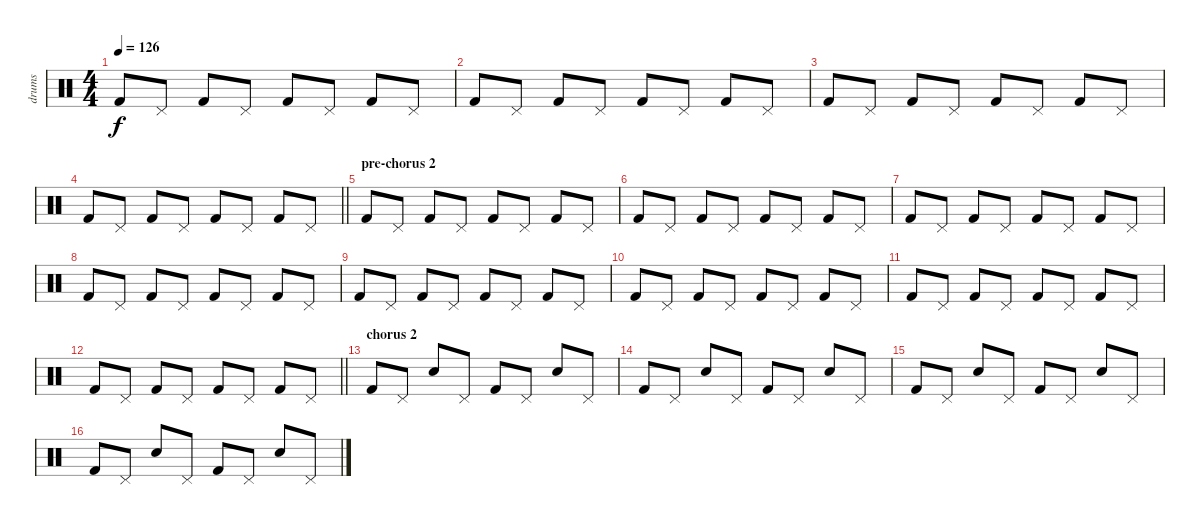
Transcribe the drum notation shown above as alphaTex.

\track ("drums" "drums") {instrument percussion}
\staff {score}
\articulation defaults
\ts (4 4)
\tempo 126
\clef neutral
\ks c "Kick (hit) 2".8{dy f} "Pedal Hi-Hat (hit)".8 "Kick (hit) 2".8 "Pedal Hi-Hat (hit)".8 "Kick (hit) 2".8 "Pedal Hi-Hat (hit)".8 "Kick (hit) 2".8 "Pedal Hi-Hat (hit)".8
|
"Kick (hit) 2".8 "Pedal Hi-Hat (hit)".8 "Kick (hit) 2".8 "Pedal Hi-Hat (hit)".8 "Kick (hit) 2".8 "Pedal Hi-Hat (hit)".8 "Kick (hit) 2".8 "Pedal Hi-Hat (hit)".8 |
"Kick (hit) 2".8 "Pedal Hi-Hat (hit)".8 "Kick (hit) 2".8 "Pedal Hi-Hat (hit)".8 "Kick (hit) 2".8 "Pedal Hi-Hat (hit)".8 "Kick (hit) 2".8 "Pedal Hi-Hat (hit)".8 |
\barLineRight lightlight "Kick (hit) 2".8 "Pedal Hi-Hat (hit)".8 "Kick (hit) 2".8 "Pedal Hi-Hat (hit)".8 "Kick (hit) 2".8 "Pedal Hi-Hat (hit)".8 "Kick (hit) 2".8 "Pedal Hi-Hat (hit)".8
|
\section ("" "pre-chorus 2")
"Kick (hit) 2".8 "Pedal Hi-Hat (hit)".8 "Kick (hit) 2".8 "Pedal Hi-Hat (hit)".8 "Kick (hit) 2".8 "Pedal Hi-Hat (hit)".8 "Kick (hit) 2".8 "Pedal Hi-Hat (hit)".8 |
"Kick (hit) 2".8 "Pedal Hi-Hat (hit)".8 "Kick (hit) 2".8 "Pedal Hi-Hat (hit)".8 "Kick (hit) 2".8 "Pedal Hi-Hat (hit)".8 "Kick (hit) 2".8 "Pedal Hi-Hat (hit)".8 |
"Kick (hit) 2".8 "Pedal Hi-Hat (hit)".8 "Kick (hit) 2".8 "Pedal Hi-Hat (hit)".8 "Kick (hit) 2".8 "Pedal Hi-Hat (hit)".8 "Kick (hit) 2".8 "Pedal Hi-Hat (hit)".8 |
"Kick (hit) 2".8 "Pedal Hi-Hat (hit)".8 "Kick (hit) 2".8 "Pedal Hi-Hat (hit)".8 "Kick (hit) 2".8 "Pedal Hi-Hat (hit)".8 "Kick (hit) 2".8 "Pedal Hi-Hat (hit)".8 |
"Kick (hit) 2".8 "Pedal Hi-Hat (hit)".8 "Kick (hit) 2".8 "Pedal Hi-Hat (hit)".8 "Kick (hit) 2".8 "Pedal Hi-Hat (hit)".8 "Kick (hit) 2".8 "Pedal Hi-Hat (hit)".8 |
"Kick (hit) 2".8 "Pedal Hi-Hat (hit)".8 "Kick (hit) 2".8 "Pedal Hi-Hat (hit)".8 "Kick (hit) 2".8 "Pedal Hi-Hat (hit)".8 "Kick (hit) 2".8 "Pedal Hi-Hat (hit)".8 |
"Kick (hit) 2".8 "Pedal Hi-Hat (hit)".8 "Kick (hit) 2".8 "Pedal Hi-Hat (hit)".8 "Kick (hit) 2".8 "Pedal Hi-Hat (hit)".8 "Kick (hit) 2".8 "Pedal Hi-Hat (hit)".8 |
\barLineRight lightlight "Kick (hit) 2".8 "Pedal Hi-Hat (hit)".8 "Kick (hit) 2".8 "Pedal Hi-Hat (hit)".8 "Kick (hit) 2".8 "Pedal Hi-Hat (hit)".8 "Kick (hit) 2".8 "Pedal Hi-Hat (hit)".8
|
\section ("" "chorus 2")
"Kick (hit) 2".8 "Pedal Hi-Hat (hit)".8 "Hand Clap (hit)".8 "Pedal Hi-Hat (hit)".8 "Kick (hit) 2".8 "Pedal Hi-Hat (hit)".8 "Hand Clap (hit)".8 "Pedal Hi-Hat (hit)".8 |
"Kick (hit) 2".8 "Pedal Hi-Hat (hit)".8 "Hand Clap (hit)".8 "Pedal Hi-Hat (hit)".8 "Kick (hit) 2".8 "Pedal Hi-Hat (hit)".8 "Hand Clap (hit)".8 "Pedal Hi-Hat (hit)".8 |
"Kick (hit) 2".8 "Pedal Hi-Hat (hit)".8 "Hand Clap (hit)".8 "Pedal Hi-Hat (hit)".8 "Kick (hit) 2".8 "Pedal Hi-Hat (hit)".8 "Hand Clap (hit)".8 "Pedal Hi-Hat (hit)".8 |
"Kick (hit) 2".8 "Pedal Hi-Hat (hit)".8 "Hand Clap (hit)".8 "Pedal Hi-Hat (hit)".8 "Kick (hit) 2".8 "Pedal Hi-Hat (hit)".8 "Hand Clap (hit)".8 "Pedal Hi-Hat (hit)".8
